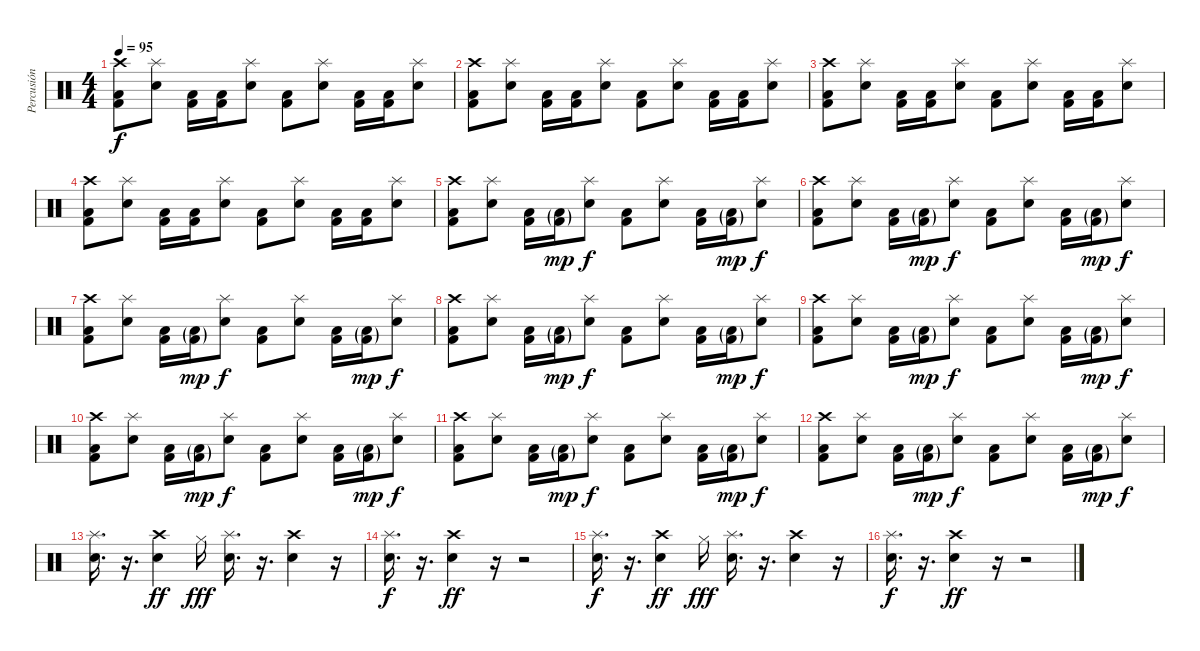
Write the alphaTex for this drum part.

\track ("Percusión" "Percusión") {instrument percussion}
\staff {score}
\articulation defaults
\ts (4 4)
\tempo 95
\clef neutral
\ks c
("Crash high (hit)" "Low Floor Tom (hit)" "Kick (hit) 2").8{dy f} ("Splash (hit)" "Electric Snare (hit)").8 ("Low Floor Tom (hit)" "Kick (hit) 2").16 ("Low Floor Tom (hit)" "Kick (hit) 2").16 ("Splash (hit)" "Electric Snare (hit)").8 ("Low Floor Tom (hit)" "Kick (hit) 2").8 ("Splash (hit)" "Electric Snare (hit)").8 ("Low Floor Tom (hit)" "Kick (hit) 2").16 ("Low Floor Tom (hit)" "Kick (hit) 2").16 ("Splash (hit)" "Electric Snare (hit)").8 |
("Crash high (hit)" "Low Floor Tom (hit)" "Kick (hit) 2").8 ("Splash (hit)" "Electric Snare (hit)").8 ("Low Floor Tom (hit)" "Kick (hit) 2").16 ("Low Floor Tom (hit)" "Kick (hit) 2").16 ("Splash (hit)" "Electric Snare (hit)").8 ("Low Floor Tom (hit)" "Kick (hit) 2").8 ("Splash (hit)" "Electric Snare (hit)").8 ("Low Floor Tom (hit)" "Kick (hit) 2").16 ("Low Floor Tom (hit)" "Kick (hit) 2").16 ("Splash (hit)" "Electric Snare (hit)").8 |
("Crash high (hit)" "Low Floor Tom (hit)" "Kick (hit) 2").8 ("Splash (hit)" "Electric Snare (hit)").8 ("Low Floor Tom (hit)" "Kick (hit) 2").16 ("Low Floor Tom (hit)" "Kick (hit) 2").16 ("Splash (hit)" "Electric Snare (hit)").8 ("Low Floor Tom (hit)" "Kick (hit) 2").8 ("Splash (hit)" "Electric Snare (hit)").8 ("Low Floor Tom (hit)" "Kick (hit) 2").16 ("Low Floor Tom (hit)" "Kick (hit) 2").16 ("Splash (hit)" "Electric Snare (hit)").8 |
("Crash high (hit)" "Low Floor Tom (hit)" "Kick (hit) 2").8 ("Splash (hit)" "Electric Snare (hit)").8 ("Low Floor Tom (hit)" "Kick (hit) 2").16 ("Low Floor Tom (hit)" "Kick (hit) 2").16 ("Splash (hit)" "Electric Snare (hit)").8 ("Low Floor Tom (hit)" "Kick (hit) 2").8 ("Splash (hit)" "Electric Snare (hit)").8 ("Low Floor Tom (hit)" "Kick (hit) 2").16 ("Low Floor Tom (hit)" "Kick (hit) 2").16 ("Splash (hit)" "Electric Snare (hit)").8 |
("Crash high (hit)" "Low Floor Tom (hit)" "Kick (hit) 2").8 ("Splash (hit)" "Electric Snare (hit)").8 ("Low Floor Tom (hit)" "Kick (hit) 2").16 ("Low Floor Tom (hit)"{g} "Kick (hit) 2"{g}).16{dy mp} ("Splash (hit)" "Electric Snare (hit)").8{dy f} ("Low Floor Tom (hit)" "Kick (hit) 2").8 ("Splash (hit)" "Electric Snare (hit)").8 ("Low Floor Tom (hit)" "Kick (hit) 2").16 ("Low Floor Tom (hit)"{g} "Kick (hit) 2"{g}).16{dy mp} ("Splash (hit)" "Electric Snare (hit)").8{dy f} |
("Crash high (hit)" "Low Floor Tom (hit)" "Kick (hit) 2").8 ("Splash (hit)" "Electric Snare (hit)").8 ("Low Floor Tom (hit)" "Kick (hit) 2").16 ("Low Floor Tom (hit)"{g} "Kick (hit) 2"{g}).16{dy mp} ("Splash (hit)" "Electric Snare (hit)").8{dy f} ("Low Floor Tom (hit)" "Kick (hit) 2").8 ("Splash (hit)" "Electric Snare (hit)").8 ("Low Floor Tom (hit)" "Kick (hit) 2").16 ("Low Floor Tom (hit)"{g} "Kick (hit) 2"{g}).16{dy mp} ("Splash (hit)" "Electric Snare (hit)").8{dy f} |
("Crash high (hit)" "Low Floor Tom (hit)" "Kick (hit) 2").8 ("Splash (hit)" "Electric Snare (hit)").8 ("Low Floor Tom (hit)" "Kick (hit) 2").16 ("Low Floor Tom (hit)"{g} "Kick (hit) 2"{g}).16{dy mp} ("Splash (hit)" "Electric Snare (hit)").8{dy f} ("Low Floor Tom (hit)" "Kick (hit) 2").8 ("Splash (hit)" "Electric Snare (hit)").8 ("Low Floor Tom (hit)" "Kick (hit) 2").16 ("Low Floor Tom (hit)"{g} "Kick (hit) 2"{g}).16{dy mp} ("Splash (hit)" "Electric Snare (hit)").8{dy f} |
("Crash high (hit)" "Low Floor Tom (hit)" "Kick (hit) 2").8 ("Splash (hit)" "Electric Snare (hit)").8 ("Low Floor Tom (hit)" "Kick (hit) 2").16 ("Low Floor Tom (hit)"{g} "Kick (hit) 2"{g}).16{dy mp} ("Splash (hit)" "Electric Snare (hit)").8{dy f} ("Low Floor Tom (hit)" "Kick (hit) 2").8 ("Splash (hit)" "Electric Snare (hit)").8 ("Low Floor Tom (hit)" "Kick (hit) 2").16 ("Low Floor Tom (hit)"{g} "Kick (hit) 2"{g}).16{dy mp} ("Splash (hit)" "Electric Snare (hit)").8{dy f} |
("Crash high (hit)" "Low Floor Tom (hit)" "Kick (hit) 2").8 ("Splash (hit)" "Electric Snare (hit)").8 ("Low Floor Tom (hit)" "Kick (hit) 2").16 ("Low Floor Tom (hit)"{g} "Kick (hit) 2"{g}).16{dy mp} ("Splash (hit)" "Electric Snare (hit)").8{dy f} ("Low Floor Tom (hit)" "Kick (hit) 2").8 ("Splash (hit)" "Electric Snare (hit)").8 ("Low Floor Tom (hit)" "Kick (hit) 2").16 ("Low Floor Tom (hit)"{g} "Kick (hit) 2"{g}).16{dy mp} ("Splash (hit)" "Electric Snare (hit)").8{dy f} |
("Crash high (hit)" "Low Floor Tom (hit)" "Kick (hit) 2").8 ("Splash (hit)" "Electric Snare (hit)").8 ("Low Floor Tom (hit)" "Kick (hit) 2").16 ("Low Floor Tom (hit)"{g} "Kick (hit) 2"{g}).16{dy mp} ("Splash (hit)" "Electric Snare (hit)").8{dy f} ("Low Floor Tom (hit)" "Kick (hit) 2").8 ("Splash (hit)" "Electric Snare (hit)").8 ("Low Floor Tom (hit)" "Kick (hit) 2").16 ("Low Floor Tom (hit)"{g} "Kick (hit) 2"{g}).16{dy mp} ("Splash (hit)" "Electric Snare (hit)").8{dy f} |
("Crash high (hit)" "Low Floor Tom (hit)" "Kick (hit) 2").8 ("Splash (hit)" "Electric Snare (hit)").8 ("Low Floor Tom (hit)" "Kick (hit) 2").16 ("Low Floor Tom (hit)"{g} "Kick (hit) 2"{g}).16{dy mp} ("Splash (hit)" "Electric Snare (hit)").8{dy f} ("Low Floor Tom (hit)" "Kick (hit) 2").8 ("Splash (hit)" "Electric Snare (hit)").8 ("Low Floor Tom (hit)" "Kick (hit) 2").16 ("Low Floor Tom (hit)"{g} "Kick (hit) 2"{g}).16{dy mp} ("Splash (hit)" "Electric Snare (hit)").8{dy f} |
("Crash high (hit)" "Low Floor Tom (hit)" "Kick (hit) 2").8 ("Splash (hit)" "Electric Snare (hit)").8 ("Low Floor Tom (hit)" "Kick (hit) 2").16 ("Low Floor Tom (hit)"{g} "Kick (hit) 2"{g}).16{dy mp} ("Splash (hit)" "Electric Snare (hit)").8{dy f} ("Low Floor Tom (hit)" "Kick (hit) 2").8 ("Splash (hit)" "Electric Snare (hit)").8 ("Low Floor Tom (hit)" "Kick (hit) 2").16 ("Low Floor Tom (hit)"{g} "Kick (hit) 2"{g}).16{dy mp} ("Splash (hit)" "Electric Snare (hit)").8{dy f} |
("Splash (hit)" "Electric Snare (hit)").16{d} r.16{d} ("Crash high (hit)" "Electric Snare (hit)").4{dy ff} "Hi-Hat (closed)".16{dy fff} ("Splash (hit)" "Electric Snare (hit)").16{d} r.16{d} ("Crash high (hit)" "Electric Snare (hit)").4 r.16 |
("Splash (hit)" "Electric Snare (hit)").16{d dy f} r.16{d} ("Crash high (hit)" "Electric Snare (hit)").4{dy ff} r.16 r.2 |
("Splash (hit)" "Electric Snare (hit)").16{d dy f} r.16{d} ("Crash high (hit)" "Electric Snare (hit)").4{dy ff} "Hi-Hat (closed)".16{dy fff} ("Splash (hit)" "Electric Snare (hit)").16{d} r.16{d} ("Crash high (hit)" "Electric Snare (hit)").4 r.16 |
("Splash (hit)" "Electric Snare (hit)").16{d dy f} r.16{d} ("Crash high (hit)" "Electric Snare (hit)").4{dy ff} r.16 r.2
